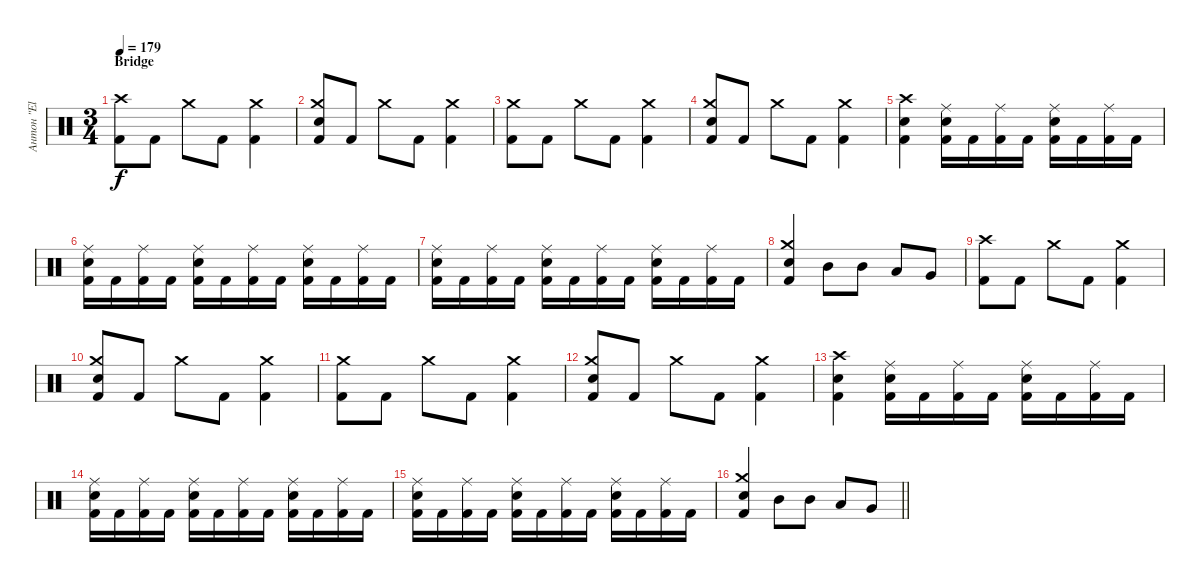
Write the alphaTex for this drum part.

\track ("Антон \"El Bastardo\" Смольянин" "Антон \"El ") {instrument percussion}
\staff {score}
\articulation defaults
\ts (3 4)
\section ("" "Bridge")
\tempo 179
\clef neutral
\ks c
("Crash high (hit)" "Kick (hit) 2").8{dy f} "Kick (hit) 2".8 "Crash medium (hit)".8 "Kick (hit) 2".8 ("Crash medium (hit)" "Kick (hit) 2").4 |
("Crash medium (hit)" "Electric Snare (hit)" "Kick (hit) 2").8 "Kick (hit) 2".8 "Crash medium (hit)".8 "Kick (hit) 2".8 ("Crash medium (hit)" "Kick (hit) 2").4 |
("Crash medium (hit)" "Kick (hit) 2").8 "Kick (hit) 2".8 "Crash medium (hit)".8 "Kick (hit) 2".8 ("Crash medium (hit)" "Kick (hit) 2").4 |
("Crash medium (hit)" "Electric Snare (hit)" "Kick (hit) 2").8 "Kick (hit) 2".8 "Crash medium (hit)".8 "Kick (hit) 2".8 ("Crash medium (hit)" "Kick (hit) 2").4 |
("Crash high (hit)" "Electric Snare (hit)" "Kick (hit) 2").4 ("Ride (middle)" "Electric Snare (hit)" "Kick (hit) 2").16 "Kick (hit) 2".16 ("Ride (middle)" "Kick (hit) 2").16 "Kick (hit) 2".16 ("Ride (middle)" "Electric Snare (hit)" "Kick (hit) 2").16 "Kick (hit) 2".16 ("Ride (middle)" "Kick (hit) 2").16 "Kick (hit) 2".16 |
("Ride (middle)" "Electric Snare (hit)" "Kick (hit) 2").16 "Kick (hit) 2".16 ("Ride (middle)" "Kick (hit) 2").16 "Kick (hit) 2".16 ("Ride (middle)" "Electric Snare (hit)" "Kick (hit) 2").16 "Kick (hit) 2".16 ("Ride (middle)" "Kick (hit) 2").16 "Kick (hit) 2".16 ("Ride (middle)" "Electric Snare (hit)" "Kick (hit) 2").16 "Kick (hit) 2".16 ("Ride (middle)" "Kick (hit) 2").16 "Kick (hit) 2".16 |
("Ride (middle)" "Electric Snare (hit)" "Kick (hit) 2").16 "Kick (hit) 2".16 ("Ride (middle)" "Kick (hit) 2").16 "Kick (hit) 2".16 ("Ride (middle)" "Electric Snare (hit)" "Kick (hit) 2").16 "Kick (hit) 2".16 ("Ride (middle)" "Kick (hit) 2").16 "Kick (hit) 2".16 ("Ride (middle)" "Electric Snare (hit)" "Kick (hit) 2").16 "Kick (hit) 2".16 ("Ride (middle)" "Kick (hit) 2").16 "Kick (hit) 2".16 |
("Crash medium (hit)" "Electric Snare (hit)" "Kick (hit) 2").4 "Mid Tom (hit)".8 "Mid Tom (hit)".8 "Low Tom (hit)".8 "Very Low Tom (hit)".8 |
("Crash high (hit)" "Kick (hit) 2").8 "Kick (hit) 2".8 "Crash medium (hit)".8 "Kick (hit) 2".8 ("Crash medium (hit)" "Kick (hit) 2").4 |
("Crash medium (hit)" "Electric Snare (hit)" "Kick (hit) 2").8 "Kick (hit) 2".8 "Crash medium (hit)".8 "Kick (hit) 2".8 ("Crash medium (hit)" "Kick (hit) 2").4 |
("Crash medium (hit)" "Kick (hit) 2").8 "Kick (hit) 2".8 "Crash medium (hit)".8 "Kick (hit) 2".8 ("Crash medium (hit)" "Kick (hit) 2").4 |
("Crash medium (hit)" "Electric Snare (hit)" "Kick (hit) 2").8 "Kick (hit) 2".8 "Crash medium (hit)".8 "Kick (hit) 2".8 ("Crash medium (hit)" "Kick (hit) 2").4 |
("Crash high (hit)" "Electric Snare (hit)" "Kick (hit) 2").4 ("Ride (middle)" "Electric Snare (hit)" "Kick (hit) 2").16 "Kick (hit) 2".16 ("Ride (middle)" "Kick (hit) 2").16 "Kick (hit) 2".16 ("Ride (middle)" "Electric Snare (hit)" "Kick (hit) 2").16 "Kick (hit) 2".16 ("Ride (middle)" "Kick (hit) 2").16 "Kick (hit) 2".16 |
("Ride (middle)" "Electric Snare (hit)" "Kick (hit) 2").16 "Kick (hit) 2".16 ("Ride (middle)" "Kick (hit) 2").16 "Kick (hit) 2".16 ("Ride (middle)" "Electric Snare (hit)" "Kick (hit) 2").16 "Kick (hit) 2".16 ("Ride (middle)" "Kick (hit) 2").16 "Kick (hit) 2".16 ("Ride (middle)" "Electric Snare (hit)" "Kick (hit) 2").16 "Kick (hit) 2".16 ("Ride (middle)" "Kick (hit) 2").16 "Kick (hit) 2".16 |
("Ride (middle)" "Electric Snare (hit)" "Kick (hit) 2").16 "Kick (hit) 2".16 ("Ride (middle)" "Kick (hit) 2").16 "Kick (hit) 2".16 ("Ride (middle)" "Electric Snare (hit)" "Kick (hit) 2").16 "Kick (hit) 2".16 ("Ride (middle)" "Kick (hit) 2").16 "Kick (hit) 2".16 ("Ride (middle)" "Electric Snare (hit)" "Kick (hit) 2").16 "Kick (hit) 2".16 ("Ride (middle)" "Kick (hit) 2").16 "Kick (hit) 2".16 |
\barLineRight lightlight
("Crash medium (hit)" "Electric Snare (hit)" "Kick (hit) 2").4 "Mid Tom (hit)".8 "Mid Tom (hit)".8 "Low Tom (hit)".8 "Very Low Tom (hit)".8
